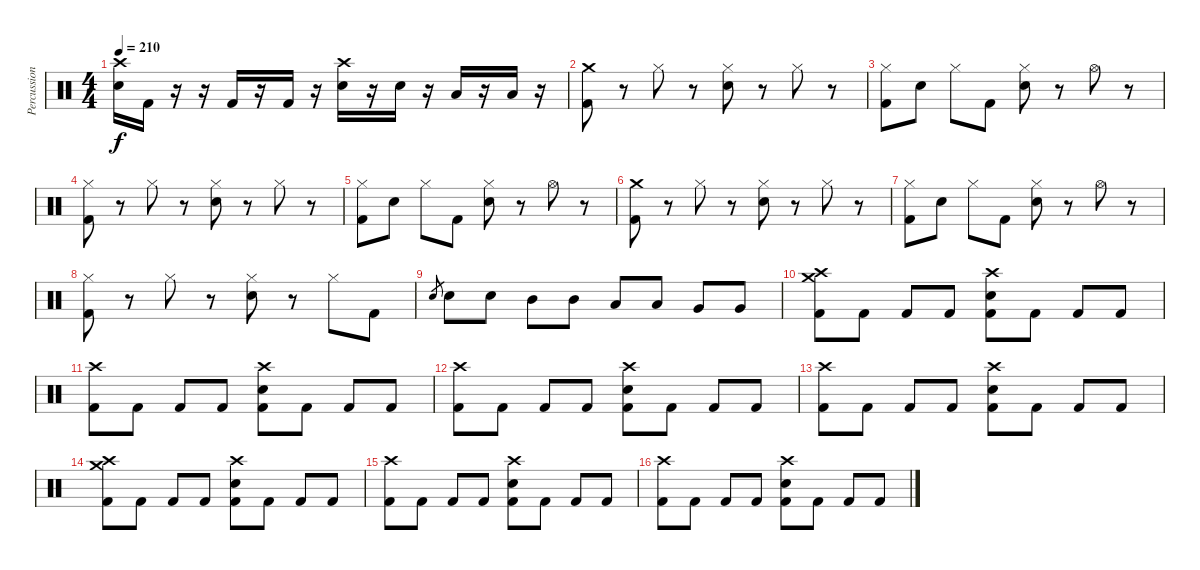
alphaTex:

\track ("Percussion" "Percussion") {instrument percussion}
\staff {score}
\articulation defaults
\ts (4 4)
\tempo 210
\clef neutral
\ks c
("Crash high (hit)" "Snare (hit) 2").16{dy f} "Kick (hit) 2".16 r.16 r.16 "Kick (hit) 2".16 r.16 "Kick (hit) 2".16 r.16 ("Crash high (hit)" "Snare (hit) 2").16 r.16 "Snare (hit) 2".16 r.16 "Low Tom (hit)".16 r.16 "Low Tom (hit)".16 r.16 |
("Crash medium (hit)" "Kick (hit) 2").8 r.8 "Hi-Hat (closed)".8 r.8 ("Hi-Hat (closed)" "Snare (hit) 2").8 r.8 "Hi-Hat (closed)".8 r.8 |
("Hi-Hat (closed)" "Kick (hit) 2").8 "Snare (hit) 2".8 "Hi-Hat (closed)".8 "Kick (hit) 2".8 ("Hi-Hat (closed)" "Snare (hit) 2").8 r.8 "Hi-Hat (open)".8 r.8 |
("Hi-Hat (closed)" "Kick (hit) 2").8 r.8 "Hi-Hat (closed)".8 r.8 ("Hi-Hat (closed)" "Snare (hit) 2").8 r.8 "Hi-Hat (closed)".8 r.8 |
("Hi-Hat (closed)" "Kick (hit) 2").8 "Snare (hit) 2".8 "Hi-Hat (closed)".8 "Kick (hit) 2".8 ("Hi-Hat (closed)" "Snare (hit) 2").8 r.8 "Hi-Hat (open)".8 r.8 |
("Crash medium (hit)" "Kick (hit) 2").8 r.8 "Hi-Hat (closed)".8 r.8 ("Hi-Hat (closed)" "Snare (hit) 2").8 r.8 "Hi-Hat (closed)".8 r.8 |
("Hi-Hat (closed)" "Kick (hit) 2").8 "Snare (hit) 2".8 "Hi-Hat (closed)".8 "Kick (hit) 2".8 ("Hi-Hat (closed)" "Snare (hit) 2").8 r.8 "Hi-Hat (open)".8 r.8 |
("Hi-Hat (closed)" "Kick (hit) 2").8 r.8 "Hi-Hat (closed)".8 r.8 ("Hi-Hat (closed)" "Snare (hit) 2").8 r.8 "Hi-Hat (closed)".8 "Kick (hit) 2".8 |
"Snare (hit) 2".8{gr} "Snare (hit) 2".8 "Snare (hit) 2".8 "Mid Tom (hit)".8 "Mid Tom (hit)".8 "Low Tom (hit)".8 "Low Tom (hit)".8 "Very Low Tom (hit)".8 "Very Low Tom (hit)".8 |
("Crash high (hit)" "Crash medium (hit)" "Kick (hit) 2").8 "Kick (hit) 2".8 "Kick (hit) 2".8 "Kick (hit) 2".8 ("Crash high (hit)" "Snare (hit) 2" "Kick (hit) 2").8 "Kick (hit) 2".8 "Kick (hit) 2".8 "Kick (hit) 2".8 |
("Crash high (hit)" "Kick (hit) 2").8 "Kick (hit) 2".8 "Kick (hit) 2".8 "Kick (hit) 2".8 ("Crash high (hit)" "Snare (hit) 2" "Kick (hit) 2").8 "Kick (hit) 2".8 "Kick (hit) 2".8 "Kick (hit) 2".8 |
("Crash high (hit)" "Kick (hit) 2").8 "Kick (hit) 2".8 "Kick (hit) 2".8 "Kick (hit) 2".8 ("Crash high (hit)" "Snare (hit) 2" "Kick (hit) 2").8 "Kick (hit) 2".8 "Kick (hit) 2".8 "Kick (hit) 2".8 |
("Crash high (hit)" "Kick (hit) 2").8 "Kick (hit) 2".8 "Kick (hit) 2".8 "Kick (hit) 2".8 ("Crash high (hit)" "Snare (hit) 2" "Kick (hit) 2").8 "Kick (hit) 2".8 "Kick (hit) 2".8 "Kick (hit) 2".8 |
("Crash high (hit)" "Crash medium (hit)" "Kick (hit) 2").8 "Kick (hit) 2".8 "Kick (hit) 2".8 "Kick (hit) 2".8 ("Crash high (hit)" "Snare (hit) 2" "Kick (hit) 2").8 "Kick (hit) 2".8 "Kick (hit) 2".8 "Kick (hit) 2".8 |
("Crash high (hit)" "Kick (hit) 2").8 "Kick (hit) 2".8 "Kick (hit) 2".8 "Kick (hit) 2".8 ("Crash high (hit)" "Snare (hit) 2" "Kick (hit) 2").8 "Kick (hit) 2".8 "Kick (hit) 2".8 "Kick (hit) 2".8 |
("Crash high (hit)" "Kick (hit) 2").8 "Kick (hit) 2".8 "Kick (hit) 2".8 "Kick (hit) 2".8 ("Crash high (hit)" "Snare (hit) 2" "Kick (hit) 2").8 "Kick (hit) 2".8 "Kick (hit) 2".8 "Kick (hit) 2".8
